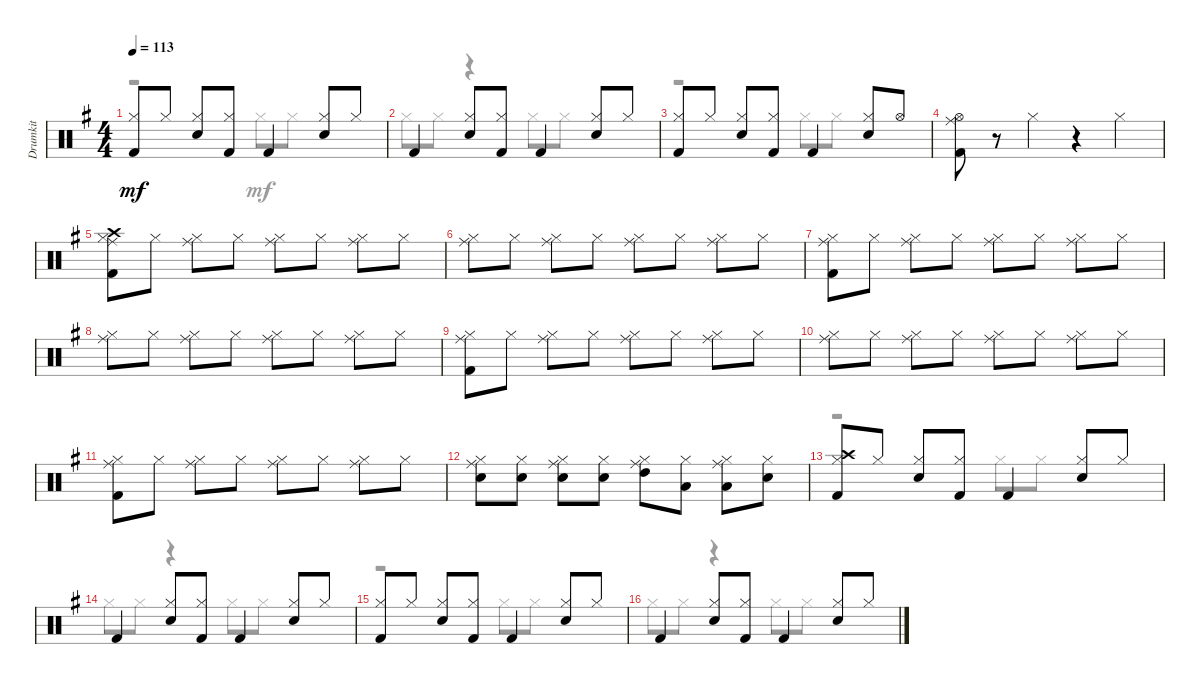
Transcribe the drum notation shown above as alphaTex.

\track ("Drumkit" "Drumkit") {instrument percussion}
\staff {score}
\articulation defaults
\voice
\ts (4 4)
\tempo 113
\clef neutral
\ks eminor
("Kick (hit) 2" "Hi-Hat (closed)").8{dy mf} "Hi-Hat (closed)".8 ("Hi-Hat (closed)" "Snare (hit) 2").8 ("Hi-Hat (closed)" "Kick (hit) 2").8 "Kick (hit) 2".4 ("Hi-Hat (closed)" "Snare (hit) 2").8 "Hi-Hat (closed)".8 |
"Kick (hit) 2".4 ("Snare (hit) 2" "Hi-Hat (closed)").8 ("Hi-Hat (closed)" "Kick (hit) 2").8 "Kick (hit) 2".4 ("Hi-Hat (closed)" "Snare (hit) 2").8 "Hi-Hat (closed)".8 |
("Hi-Hat (closed)" "Kick (hit) 2").8 "Hi-Hat (closed)".8 ("Hi-Hat (closed)" "Snare (hit) 2").8 ("Hi-Hat (closed)" "Kick (hit) 2").8 "Kick (hit) 2".4 ("Snare (hit) 2" "Hi-Hat (closed)").8 "Hi-Hat (open)".8 |
("Ride (middle)" "Hi-Hat (open)" "Kick (hit) 2").8 r.8 "Hi-Hat (closed)".4 r.4 "Hi-Hat (closed)".4 |
("Kick (hit) 2" "Hi-Hat (closed)" "Crash high (hit)" "Ride (middle)").8 "Hi-Hat (closed)".8 ("Ride (middle)" "Hi-Hat (closed)").8 "Hi-Hat (closed)".8 ("Ride (middle)" "Hi-Hat (closed)").8 "Hi-Hat (closed)".8 ("Ride (middle)" "Hi-Hat (closed)").8 "Hi-Hat (closed)".8 |
("Ride (middle)" "Hi-Hat (closed)").8 "Hi-Hat (closed)".8 ("Hi-Hat (closed)" "Ride (middle)").8 "Hi-Hat (closed)".8 ("Hi-Hat (closed)" "Ride (middle)").8 "Hi-Hat (closed)".8 ("Ride (middle)" "Hi-Hat (closed)").8 "Hi-Hat (closed)".8 |
("Kick (hit) 2" "Hi-Hat (closed)" "Ride (middle)").8 "Hi-Hat (closed)".8 ("Hi-Hat (closed)" "Ride (middle)").8 "Hi-Hat (closed)".8 ("Ride (middle)" "Hi-Hat (closed)").8 "Hi-Hat (closed)".8 ("Hi-Hat (closed)" "Ride (middle)").8 "Hi-Hat (closed)".8 |
("Hi-Hat (closed)" "Ride (middle)").8 "Hi-Hat (closed)".8 ("Ride (middle)" "Hi-Hat (closed)").8 "Hi-Hat (closed)".8 ("Hi-Hat (closed)" "Ride (middle)").8 "Hi-Hat (closed)".8 ("Hi-Hat (closed)" "Ride (middle)").8 "Hi-Hat (closed)".8 |
("Ride (middle)" "Hi-Hat (closed)" "Kick (hit) 2").8 "Hi-Hat (closed)".8 ("Ride (middle)" "Hi-Hat (closed)").8 "Hi-Hat (closed)".8 ("Hi-Hat (closed)" "Ride (middle)").8 "Hi-Hat (closed)".8 ("Hi-Hat (closed)" "Ride (middle)").8 "Hi-Hat (closed)".8 |
("Hi-Hat (closed)" "Ride (middle)").8 "Hi-Hat (closed)".8 ("Ride (middle)" "Hi-Hat (closed)").8 "Hi-Hat (closed)".8 ("Ride (middle)" "Hi-Hat (closed)").8 "Hi-Hat (closed)".8 ("Ride (middle)" "Hi-Hat (closed)").8 "Hi-Hat (closed)".8 |
("Ride (middle)" "Hi-Hat (closed)" "Kick (hit) 2").8 "Hi-Hat (closed)".8 ("Ride (middle)" "Hi-Hat (closed)").8 "Hi-Hat (closed)".8 ("Hi-Hat (closed)" "Ride (middle)").8 "Hi-Hat (closed)".8 ("Ride (middle)" "Hi-Hat (closed)").8 "Hi-Hat (closed)".8 |
("Ride (middle)" "Hi-Hat (closed)" "Snare (hit) 2").8 ("Snare (hit) 2" "Hi-Hat (closed)").8 ("Ride (middle)" "Hi-Hat (closed)" "Snare (hit) 2").8 ("Snare (hit) 2" "Hi-Hat (closed)").8 ("Ride (middle)" "High Tom (hit)" "Hi-Hat (closed)").8 ("Hi-Hat (closed)" "Low Tom (hit)").8 ("Ride (middle)" "Hi-Hat (closed)" "Low Floor Tom (hit)").8 ("Hi-Hat (closed)" "Snare (hit) 2").8 |
("Kick (hit) 2" "Crash high (hit)" "Hi-Hat (closed)").8 "Hi-Hat (closed)".8 ("Hi-Hat (closed)" "Snare (hit) 2").8 ("Hi-Hat (closed)" "Kick (hit) 2").8 "Kick (hit) 2".4 ("Snare (hit) 2" "Hi-Hat (closed)").8 "Hi-Hat (closed)".8 |
"Kick (hit) 2".4 ("Snare (hit) 2" "Hi-Hat (closed)").8 ("Kick (hit) 2" "Hi-Hat (closed)").8 "Kick (hit) 2".4 ("Hi-Hat (closed)" "Snare (hit) 2").8 "Hi-Hat (closed)".8 |
("Kick (hit) 2" "Hi-Hat (closed)").8 "Hi-Hat (closed)".8 ("Hi-Hat (closed)" "Snare (hit) 2").8 ("Kick (hit) 2" "Hi-Hat (closed)").8 "Kick (hit) 2".4 ("Hi-Hat (closed)" "Snare (hit) 2").8 "Hi-Hat (closed)".8 |
"Kick (hit) 2".4 ("Snare (hit) 2" "Hi-Hat (closed)").8 ("Hi-Hat (closed)" "Kick (hit) 2").8 "Kick (hit) 2".4 ("Hi-Hat (closed)" "Snare (hit) 2").8 "Hi-Hat (closed)".8
\voice
\clef neutral
\ottava regular
\simile none
\ks eminor
r.2{dy mf} "Hi-Hat (closed)".8 "Hi-Hat (closed)".8 |
"Hi-Hat (closed)".8 "Hi-Hat (closed)".8 r.4 "Hi-Hat (closed)".8 "Hi-Hat (closed)".8 |
r.2 "Hi-Hat (closed)".8 "Hi-Hat (closed)".8 |
|
|
|
|
|
|
|
|
|
r.2 "Hi-Hat (closed)".8 "Hi-Hat (closed)".8 |
"Hi-Hat (closed)".8 "Hi-Hat (closed)".8 r.4 "Hi-Hat (closed)".8 "Hi-Hat (closed)".8 |
r.2 "Hi-Hat (closed)".8 "Hi-Hat (closed)".8 |
"Hi-Hat (closed)".8 "Hi-Hat (closed)".8 r.4 "Hi-Hat (closed)".8 "Hi-Hat (closed)".8
